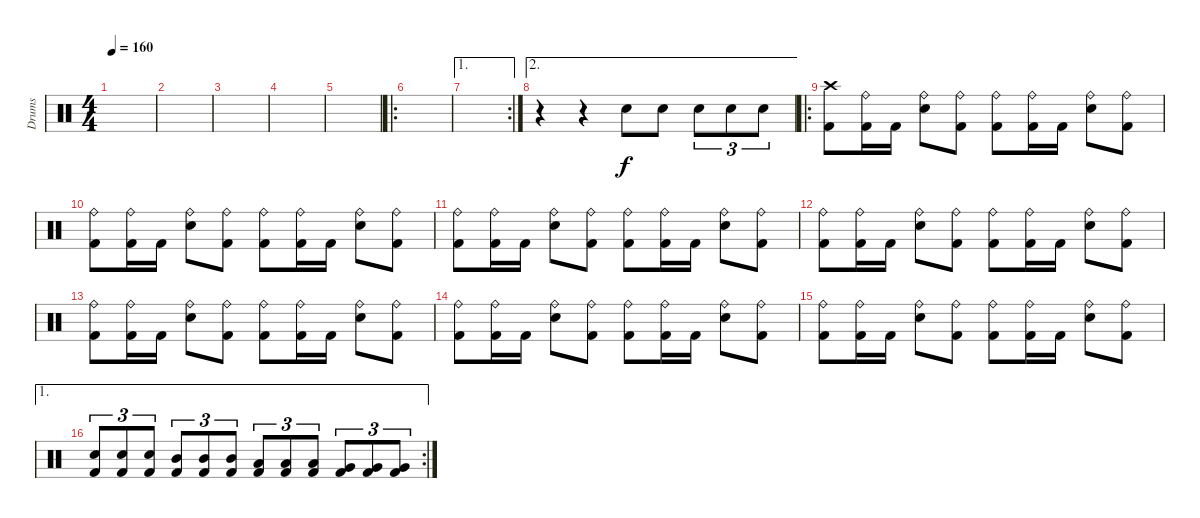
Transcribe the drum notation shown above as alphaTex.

\track ("Drums" "Drums") {instrument percussion}
\staff {score}
\articulation defaults
\ts (4 4)
\tempo 160
\clef neutral
\ks c
|
|
|
|
|
\ro
|
\ae 1
\rc 2
|
\ae 2
r.4 r.4 "Snare (hit) 2".8 "Snare (hit) 2".8 "Snare (hit) 2".8{tu (3 2)} "Snare (hit) 2".8{tu (3 2)} "Snare (hit) 2".8{tu (3 2)} |
\ro
("Crash high (hit)" "Kick (hit) 2").8 ("Ride (bell)" "Kick (hit) 2").16 "Kick (hit) 2".16 ("Ride (bell)" "Snare (hit) 2").8 ("Ride (bell)" "Kick (hit) 2").8 ("Ride (bell)" "Kick (hit) 2").8 ("Ride (bell)" "Kick (hit) 2").16 "Kick (hit) 2".16 ("Ride (bell)" "Snare (hit) 2").8 ("Ride (bell)" "Kick (hit) 2").8 |
("Ride (bell)" "Kick (hit) 2").8 ("Ride (bell)" "Kick (hit) 2").16 "Kick (hit) 2".16 ("Ride (bell)" "Snare (hit) 2").8 ("Ride (bell)" "Kick (hit) 2").8 ("Ride (bell)" "Kick (hit) 2").8 ("Ride (bell)" "Kick (hit) 2").16 "Kick (hit) 2".16 ("Ride (bell)" "Snare (hit) 2").8 ("Ride (bell)" "Kick (hit) 2").8 |
("Ride (bell)" "Kick (hit) 2").8 ("Ride (bell)" "Kick (hit) 2").16 "Kick (hit) 2".16 ("Ride (bell)" "Snare (hit) 2").8 ("Ride (bell)" "Kick (hit) 2").8 ("Ride (bell)" "Kick (hit) 2").8 ("Ride (bell)" "Kick (hit) 2").16 "Kick (hit) 2".16 ("Ride (bell)" "Snare (hit) 2").8 ("Ride (bell)" "Kick (hit) 2").8 |
("Ride (bell)" "Kick (hit) 2").8 ("Ride (bell)" "Kick (hit) 2").16 "Kick (hit) 2".16 ("Ride (bell)" "Snare (hit) 2").8 ("Ride (bell)" "Kick (hit) 2").8 ("Ride (bell)" "Kick (hit) 2").8 ("Ride (bell)" "Kick (hit) 2").16 "Kick (hit) 2".16 ("Ride (bell)" "Snare (hit) 2").8 ("Ride (bell)" "Kick (hit) 2").8 |
("Ride (bell)" "Kick (hit) 2").8 ("Ride (bell)" "Kick (hit) 2").16 "Kick (hit) 2".16 ("Ride (bell)" "Snare (hit) 2").8 ("Ride (bell)" "Kick (hit) 2").8 ("Ride (bell)" "Kick (hit) 2").8 ("Ride (bell)" "Kick (hit) 2").16 "Kick (hit) 2".16 ("Ride (bell)" "Snare (hit) 2").8 ("Ride (bell)" "Kick (hit) 2").8 |
("Ride (bell)" "Kick (hit) 2").8 ("Ride (bell)" "Kick (hit) 2").16 "Kick (hit) 2".16 ("Ride (bell)" "Snare (hit) 2").8 ("Ride (bell)" "Kick (hit) 2").8 ("Ride (bell)" "Kick (hit) 2").8 ("Ride (bell)" "Kick (hit) 2").16 "Kick (hit) 2".16 ("Ride (bell)" "Snare (hit) 2").8 ("Ride (bell)" "Kick (hit) 2").8 |
("Ride (bell)" "Kick (hit) 2").8 ("Ride (bell)" "Kick (hit) 2").16 "Kick (hit) 2".16 ("Ride (bell)" "Snare (hit) 2").8 ("Ride (bell)" "Kick (hit) 2").8 ("Ride (bell)" "Kick (hit) 2").8 ("Ride (bell)" "Kick (hit) 2").16 "Kick (hit) 2".16 ("Ride (bell)" "Snare (hit) 2").8 ("Ride (bell)" "Kick (hit) 2").8 |
\ae 1
\rc 2
("Snare (hit) 2" "Kick (hit) 2").8{tu (3 2)} ("Snare (hit) 2" "Kick (hit) 2").8{tu (3 2)} ("Snare (hit) 2" "Kick (hit) 2").8{tu (3 2)} ("Mid Tom (hit)" "Kick (hit) 2").8{tu (3 2)} ("Mid Tom (hit)" "Kick (hit) 2").8{tu (3 2)} ("Mid Tom (hit)" "Kick (hit) 2").8{tu (3 2)} ("Low Tom (hit)" "Kick (hit) 2").8{tu (3 2)} ("Low Tom (hit)" "Kick (hit) 2").8{tu (3 2)} ("Low Tom (hit)" "Kick (hit) 2").8{tu (3 2)} ("Very Low Tom (hit)" "Kick (hit) 2").8{tu (3 2)} ("Very Low Tom (hit)" "Kick (hit) 2").8{tu (3 2)} ("Very Low Tom (hit)" "Kick (hit) 2").8{tu (3 2)}
